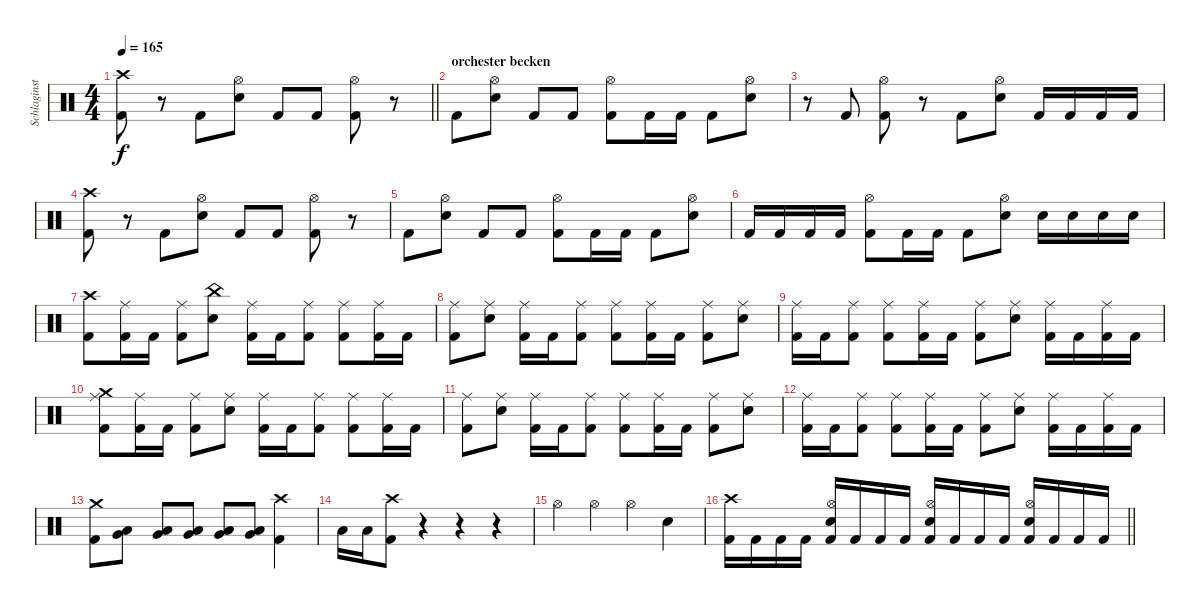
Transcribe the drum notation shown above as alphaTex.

\track ("Schlaginstrumente - Auswahl" "Schlaginst") {instrument percussion}
\staff {score}
\articulation defaults
\ts (4 4)
\tempo 165
\clef neutral
\barLineRight lightlight
\ks c
("Crash high (hit)" "Kick (hit) 2").8{dy f} r.8 "Kick (hit) 2".8 ("Hi-Hat (open)" "Snare (hit) 2").8 "Kick (hit) 2".8 "Kick (hit) 2".8 ("Hi-Hat (open)" "Kick (hit) 2").8 r.8 |
\section ("" "orchester becken")
"Kick (hit) 2".8 ("Hi-Hat (open)" "Snare (hit) 2").8 "Kick (hit) 2".8 "Kick (hit) 2".8 ("Hi-Hat (open)" "Kick (hit) 2").8 "Kick (hit) 2".16 "Kick (hit) 2".16 "Kick (hit) 2".8 ("Hi-Hat (open)" "Snare (hit) 2").8 |
r.8 "Kick (hit) 2".8 ("Hi-Hat (open)" "Kick (hit) 2").8 r.8 "Kick (hit) 2".8 ("Hi-Hat (open)" "Snare (hit) 2").8 "Kick (hit) 2".16 "Kick (hit) 2".16 "Kick (hit) 2".16 "Kick (hit) 2".16 |
("Crash high (hit)" "Kick (hit) 2").8 r.8 "Kick (hit) 2".8 ("Hi-Hat (open)" "Snare (hit) 2").8 "Kick (hit) 2".8 "Kick (hit) 2".8 ("Hi-Hat (open)" "Kick (hit) 2").8 r.8 |
"Kick (hit) 2".8 ("Hi-Hat (open)" "Snare (hit) 2").8 "Kick (hit) 2".8 "Kick (hit) 2".8 ("Hi-Hat (open)" "Kick (hit) 2").8 "Kick (hit) 2".16 "Kick (hit) 2".16 "Kick (hit) 2".8 ("Hi-Hat (open)" "Snare (hit) 2").8 |
"Kick (hit) 2".16 "Kick (hit) 2".16 "Kick (hit) 2".16 "Kick (hit) 2".16 ("Hi-Hat (open)" "Kick (hit) 2").8 "Kick (hit) 2".16 "Kick (hit) 2".16 "Kick (hit) 2".8 ("Hi-Hat (open)" "Snare (hit) 2").8 "Snare (hit) 2".16 "Snare (hit) 2".16 "Snare (hit) 2".16 "Snare (hit) 2".16 |
("Crash high (hit)" "Kick (hit) 2").8 ("Ride (middle)" "Kick (hit) 2").16 "Kick (hit) 2".16 ("Ride (middle)" "Kick (hit) 2").8 ("China (hit)" "Snare (hit) 2").8 ("Ride (middle)" "Kick (hit) 2").16 "Kick (hit) 2".16 ("Ride (middle)" "Kick (hit) 2").8 ("Ride (middle)" "Kick (hit) 2").8 ("Ride (middle)" "Kick (hit) 2").16 "Kick (hit) 2".16 |
("Ride (middle)" "Kick (hit) 2").8 ("Ride (middle)" "Snare (hit) 2").8 ("Ride (middle)" "Kick (hit) 2").16 "Kick (hit) 2".16 ("Ride (middle)" "Kick (hit) 2").8 ("Ride (middle)" "Kick (hit) 2").8 ("Ride (middle)" "Kick (hit) 2").16 "Kick (hit) 2".16 ("Ride (middle)" "Kick (hit) 2").8 ("Ride (middle)" "Snare (hit) 2").8 |
("Ride (middle)" "Kick (hit) 2").16 "Kick (hit) 2".16 ("Ride (middle)" "Kick (hit) 2").8 ("Ride (middle)" "Kick (hit) 2").8 ("Ride (middle)" "Kick (hit) 2").16 "Kick (hit) 2".16 ("Ride (middle)" "Kick (hit) 2").8 ("Ride (middle)" "Snare (hit) 2").8 ("Ride (middle)" "Kick (hit) 2").16 "Kick (hit) 2".16 ("Ride (middle)" "Kick (hit) 2").16 "Kick (hit) 2".16 |
("Crash medium (hit)" "Ride (middle)" "Kick (hit) 2").8 ("Ride (middle)" "Kick (hit) 2").16 "Kick (hit) 2".16 ("Ride (middle)" "Kick (hit) 2").8 ("Ride (middle)" "Snare (hit) 2").8 ("Ride (middle)" "Kick (hit) 2").16 "Kick (hit) 2".16 ("Ride (middle)" "Kick (hit) 2").8 ("Ride (middle)" "Kick (hit) 2").8 ("Ride (middle)" "Kick (hit) 2").16 "Kick (hit) 2".16 |
("Ride (middle)" "Kick (hit) 2").8 ("Ride (middle)" "Snare (hit) 2").8 ("Ride (middle)" "Kick (hit) 2").16 "Kick (hit) 2".16 ("Ride (middle)" "Kick (hit) 2").8 ("Ride (middle)" "Kick (hit) 2").8 ("Ride (middle)" "Kick (hit) 2").16 "Kick (hit) 2".16 ("Ride (middle)" "Kick (hit) 2").8 ("Ride (middle)" "Snare (hit) 2").8 |
("Ride (middle)" "Kick (hit) 2").16 "Kick (hit) 2".16 ("Ride (middle)" "Kick (hit) 2").8 ("Ride (middle)" "Kick (hit) 2").8 ("Ride (middle)" "Kick (hit) 2").16 "Kick (hit) 2".16 ("Ride (middle)" "Kick (hit) 2").8 ("Ride (middle)" "Snare (hit) 2").8 ("Ride (middle)" "Kick (hit) 2").16 "Kick (hit) 2".16 ("Ride (middle)" "Kick (hit) 2").16 "Kick (hit) 2".16 |
("Crash medium (hit)" "Kick (hit) 2").8 ("Very Low Tom (hit)" "Low Floor Tom (hit)").8 ("Very Low Tom (hit)" "Low Floor Tom (hit)").8 ("Very Low Tom (hit)" "Low Floor Tom (hit)").8 ("Very Low Tom (hit)" "Low Floor Tom (hit)").8 ("Very Low Tom (hit)" "Low Floor Tom (hit)").8 ("Crash high (hit)" "Kick (hit) 2").4 |
"Low Tom (hit)".16 "Low Tom (hit)".16 ("Crash high (hit)" "Kick (hit) 2").8 r.4 r.4 r.4 |
"Hi-Hat (open)".4 "Hi-Hat (open)".4 "Hi-Hat (open)".4 "Snare (hit) 2".4 |
\barLineRight lightlight
("Crash high (hit)" "Kick (hit) 2").16 "Kick (hit) 2".16 "Kick (hit) 2".16 "Kick (hit) 2".16 ("Hi-Hat (open)" "Snare (hit) 2" "Kick (hit) 2").16 "Kick (hit) 2".16 "Kick (hit) 2".16 "Kick (hit) 2".16 ("Hi-Hat (open)" "Snare (hit) 2" "Kick (hit) 2").16 "Kick (hit) 2".16 "Kick (hit) 2".16 "Kick (hit) 2".16 ("Hi-Hat (open)" "Snare (hit) 2" "Kick (hit) 2").16 "Kick (hit) 2".16 "Kick (hit) 2".16 "Kick (hit) 2".16
